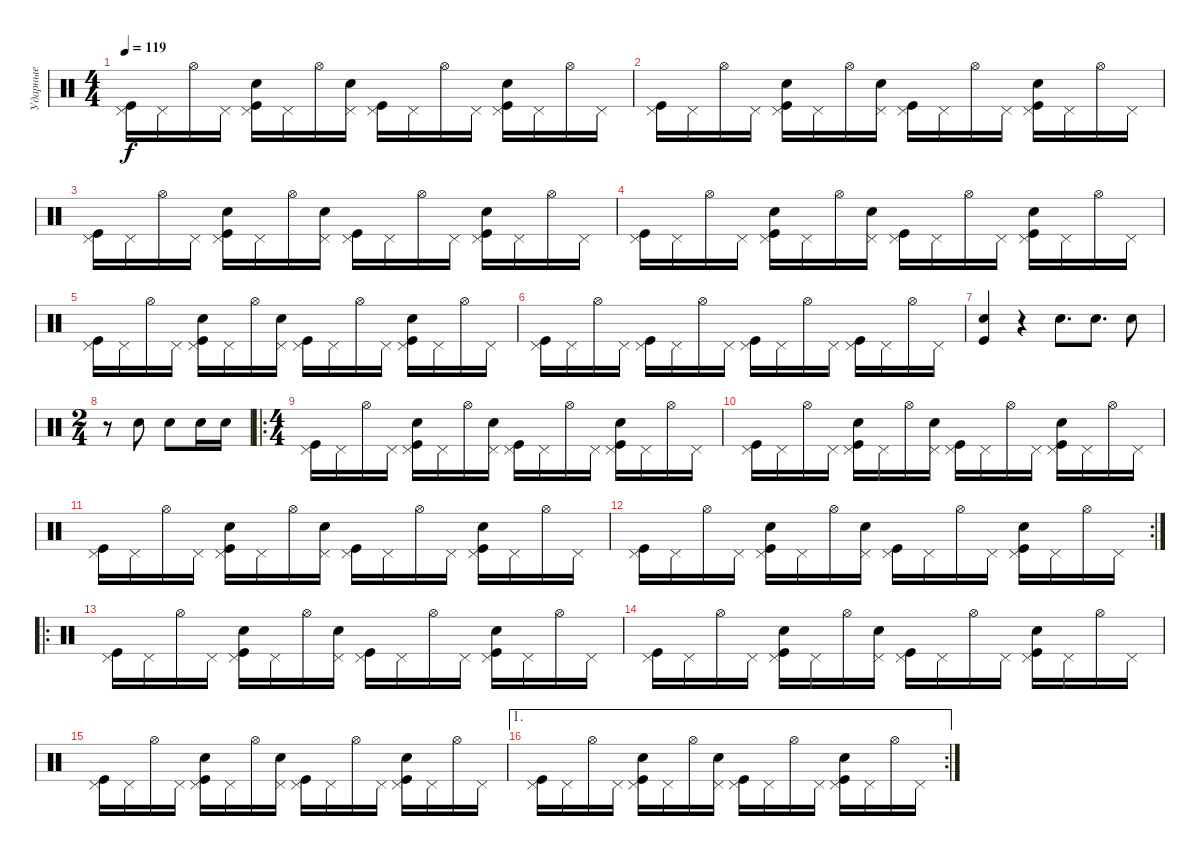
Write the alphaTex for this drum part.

\track ("Ударные" "Ударные") {instrument percussion}
\staff {score}
\articulation defaults
\ts (4 4)
\tempo 119
\clef neutral
\ks c
("Kick (hit)" "Pedal Hi-Hat (hit)").16{dy f} "Pedal Hi-Hat (hit)".16 "Hi-Hat (open)".16 "Pedal Hi-Hat (hit)".16 ("Kick (hit)" "Electric Snare (hit)" "Pedal Hi-Hat (hit)").16 "Pedal Hi-Hat (hit)".16 "Hi-Hat (open)".16 ("Electric Snare (hit)" "Pedal Hi-Hat (hit)").16 ("Kick (hit)" "Pedal Hi-Hat (hit)").16 "Pedal Hi-Hat (hit)".16 "Hi-Hat (open)".16 "Pedal Hi-Hat (hit)".16 ("Kick (hit)" "Electric Snare (hit)" "Pedal Hi-Hat (hit)").16 "Pedal Hi-Hat (hit)".16 "Hi-Hat (open)".16 "Pedal Hi-Hat (hit)".16 |
("Kick (hit)" "Pedal Hi-Hat (hit)").16 "Pedal Hi-Hat (hit)".16 "Hi-Hat (open)".16 "Pedal Hi-Hat (hit)".16 ("Kick (hit)" "Electric Snare (hit)" "Pedal Hi-Hat (hit)").16 "Pedal Hi-Hat (hit)".16 "Hi-Hat (open)".16 ("Electric Snare (hit)" "Pedal Hi-Hat (hit)").16 ("Kick (hit)" "Pedal Hi-Hat (hit)").16 "Pedal Hi-Hat (hit)".16 "Hi-Hat (open)".16 "Pedal Hi-Hat (hit)".16 ("Kick (hit)" "Electric Snare (hit)" "Pedal Hi-Hat (hit)").16 "Pedal Hi-Hat (hit)".16 "Hi-Hat (open)".16 "Pedal Hi-Hat (hit)".16 |
("Kick (hit)" "Pedal Hi-Hat (hit)").16 "Pedal Hi-Hat (hit)".16 "Hi-Hat (open)".16 "Pedal Hi-Hat (hit)".16 ("Kick (hit)" "Electric Snare (hit)" "Pedal Hi-Hat (hit)").16 "Pedal Hi-Hat (hit)".16 "Hi-Hat (open)".16 ("Electric Snare (hit)" "Pedal Hi-Hat (hit)").16 ("Kick (hit)" "Pedal Hi-Hat (hit)").16 "Pedal Hi-Hat (hit)".16 "Hi-Hat (open)".16 "Pedal Hi-Hat (hit)".16 ("Kick (hit)" "Electric Snare (hit)" "Pedal Hi-Hat (hit)").16 "Pedal Hi-Hat (hit)".16 "Hi-Hat (open)".16 "Pedal Hi-Hat (hit)".16 |
("Kick (hit)" "Pedal Hi-Hat (hit)").16 "Pedal Hi-Hat (hit)".16 "Hi-Hat (open)".16 "Pedal Hi-Hat (hit)".16 ("Kick (hit)" "Electric Snare (hit)" "Pedal Hi-Hat (hit)").16 "Pedal Hi-Hat (hit)".16 "Hi-Hat (open)".16 ("Electric Snare (hit)" "Pedal Hi-Hat (hit)").16 ("Kick (hit)" "Pedal Hi-Hat (hit)").16 "Pedal Hi-Hat (hit)".16 "Hi-Hat (open)".16 "Pedal Hi-Hat (hit)".16 ("Kick (hit)" "Electric Snare (hit)" "Pedal Hi-Hat (hit)").16 "Pedal Hi-Hat (hit)".16 "Hi-Hat (open)".16 "Pedal Hi-Hat (hit)".16 |
("Kick (hit)" "Pedal Hi-Hat (hit)").16 "Pedal Hi-Hat (hit)".16 "Hi-Hat (open)".16 "Pedal Hi-Hat (hit)".16 ("Kick (hit)" "Electric Snare (hit)" "Pedal Hi-Hat (hit)").16 "Pedal Hi-Hat (hit)".16 "Hi-Hat (open)".16 ("Electric Snare (hit)" "Pedal Hi-Hat (hit)").16 ("Kick (hit)" "Pedal Hi-Hat (hit)").16 "Pedal Hi-Hat (hit)".16 "Hi-Hat (open)".16 "Pedal Hi-Hat (hit)".16 ("Kick (hit)" "Electric Snare (hit)" "Pedal Hi-Hat (hit)").16 "Pedal Hi-Hat (hit)".16 "Hi-Hat (open)".16 "Pedal Hi-Hat (hit)".16 |
("Kick (hit)" "Pedal Hi-Hat (hit)").16 "Pedal Hi-Hat (hit)".16 "Hi-Hat (open)".16 "Pedal Hi-Hat (hit)".16 ("Kick (hit)" "Pedal Hi-Hat (hit)").16 "Pedal Hi-Hat (hit)".16 "Hi-Hat (open)".16 "Pedal Hi-Hat (hit)".16 ("Kick (hit)" "Pedal Hi-Hat (hit)").16 "Pedal Hi-Hat (hit)".16 "Hi-Hat (open)".16 "Pedal Hi-Hat (hit)".16 ("Kick (hit)" "Pedal Hi-Hat (hit)").16 "Pedal Hi-Hat (hit)".16 "Hi-Hat (open)".16 "Pedal Hi-Hat (hit)".16 |
("Kick (hit)" "Electric Snare (hit)").4 r.4 "Snare (hit) 2".8{d} "Snare (hit) 2".8{d} "Snare (hit) 2".8 |
\ts (2 4)
r.8 "Electric Snare (hit)".8 "Electric Snare (hit)".8 "Electric Snare (hit)".16 "Electric Snare (hit)".16 |
\ro
\ts (4 4)
("Kick (hit)" "Pedal Hi-Hat (hit)").16 "Pedal Hi-Hat (hit)".16 "Hi-Hat (open)".16 "Pedal Hi-Hat (hit)".16 ("Kick (hit)" "Electric Snare (hit)" "Pedal Hi-Hat (hit)").16 "Pedal Hi-Hat (hit)".16 "Hi-Hat (open)".16 ("Electric Snare (hit)" "Pedal Hi-Hat (hit)").16 ("Kick (hit)" "Pedal Hi-Hat (hit)").16 "Pedal Hi-Hat (hit)".16 "Hi-Hat (open)".16 "Pedal Hi-Hat (hit)".16 ("Kick (hit)" "Electric Snare (hit)" "Pedal Hi-Hat (hit)").16 "Pedal Hi-Hat (hit)".16 "Hi-Hat (open)".16 "Pedal Hi-Hat (hit)".16 |
("Kick (hit)" "Pedal Hi-Hat (hit)").16 "Pedal Hi-Hat (hit)".16 "Hi-Hat (open)".16 "Pedal Hi-Hat (hit)".16 ("Kick (hit)" "Electric Snare (hit)" "Pedal Hi-Hat (hit)").16 "Pedal Hi-Hat (hit)".16 "Hi-Hat (open)".16 ("Electric Snare (hit)" "Pedal Hi-Hat (hit)").16 ("Kick (hit)" "Pedal Hi-Hat (hit)").16 "Pedal Hi-Hat (hit)".16 "Hi-Hat (open)".16 "Pedal Hi-Hat (hit)".16 ("Kick (hit)" "Electric Snare (hit)" "Pedal Hi-Hat (hit)").16 "Pedal Hi-Hat (hit)".16 "Hi-Hat (open)".16 "Pedal Hi-Hat (hit)".16 |
("Kick (hit)" "Pedal Hi-Hat (hit)").16 "Pedal Hi-Hat (hit)".16 "Hi-Hat (open)".16 "Pedal Hi-Hat (hit)".16 ("Kick (hit)" "Electric Snare (hit)" "Pedal Hi-Hat (hit)").16 "Pedal Hi-Hat (hit)".16 "Hi-Hat (open)".16 ("Electric Snare (hit)" "Pedal Hi-Hat (hit)").16 ("Kick (hit)" "Pedal Hi-Hat (hit)").16 "Pedal Hi-Hat (hit)".16 "Hi-Hat (open)".16 "Pedal Hi-Hat (hit)".16 ("Kick (hit)" "Electric Snare (hit)" "Pedal Hi-Hat (hit)").16 "Pedal Hi-Hat (hit)".16 "Hi-Hat (open)".16 "Pedal Hi-Hat (hit)".16 |
\rc 2
("Kick (hit)" "Pedal Hi-Hat (hit)").16 "Pedal Hi-Hat (hit)".16 "Hi-Hat (open)".16 "Pedal Hi-Hat (hit)".16 ("Kick (hit)" "Electric Snare (hit)" "Pedal Hi-Hat (hit)").16 "Pedal Hi-Hat (hit)".16 "Hi-Hat (open)".16 ("Electric Snare (hit)" "Pedal Hi-Hat (hit)").16 ("Kick (hit)" "Pedal Hi-Hat (hit)").16 "Pedal Hi-Hat (hit)".16 "Hi-Hat (open)".16 "Pedal Hi-Hat (hit)".16 ("Kick (hit)" "Electric Snare (hit)" "Pedal Hi-Hat (hit)").16 "Pedal Hi-Hat (hit)".16 "Hi-Hat (open)".16 "Pedal Hi-Hat (hit)".16 |
\ro
("Kick (hit)" "Pedal Hi-Hat (hit)").16 "Pedal Hi-Hat (hit)".16 "Hi-Hat (open)".16 "Pedal Hi-Hat (hit)".16 ("Kick (hit)" "Electric Snare (hit)" "Pedal Hi-Hat (hit)").16 "Pedal Hi-Hat (hit)".16 "Hi-Hat (open)".16 ("Electric Snare (hit)" "Pedal Hi-Hat (hit)").16 ("Kick (hit)" "Pedal Hi-Hat (hit)").16 "Pedal Hi-Hat (hit)".16 "Hi-Hat (open)".16 "Pedal Hi-Hat (hit)".16 ("Kick (hit)" "Electric Snare (hit)" "Pedal Hi-Hat (hit)").16 "Pedal Hi-Hat (hit)".16 "Hi-Hat (open)".16 "Pedal Hi-Hat (hit)".16 |
("Kick (hit)" "Pedal Hi-Hat (hit)").16 "Pedal Hi-Hat (hit)".16 "Hi-Hat (open)".16 "Pedal Hi-Hat (hit)".16 ("Kick (hit)" "Electric Snare (hit)" "Pedal Hi-Hat (hit)").16 "Pedal Hi-Hat (hit)".16 "Hi-Hat (open)".16 ("Electric Snare (hit)" "Pedal Hi-Hat (hit)").16 ("Kick (hit)" "Pedal Hi-Hat (hit)").16 "Pedal Hi-Hat (hit)".16 "Hi-Hat (open)".16 "Pedal Hi-Hat (hit)".16 ("Kick (hit)" "Electric Snare (hit)" "Pedal Hi-Hat (hit)").16 "Pedal Hi-Hat (hit)".16 "Hi-Hat (open)".16 "Pedal Hi-Hat (hit)".16 |
("Kick (hit)" "Pedal Hi-Hat (hit)").16 "Pedal Hi-Hat (hit)".16 "Hi-Hat (open)".16 "Pedal Hi-Hat (hit)".16 ("Kick (hit)" "Electric Snare (hit)" "Pedal Hi-Hat (hit)").16 "Pedal Hi-Hat (hit)".16 "Hi-Hat (open)".16 ("Electric Snare (hit)" "Pedal Hi-Hat (hit)").16 ("Kick (hit)" "Pedal Hi-Hat (hit)").16 "Pedal Hi-Hat (hit)".16 "Hi-Hat (open)".16 "Pedal Hi-Hat (hit)".16 ("Kick (hit)" "Electric Snare (hit)" "Pedal Hi-Hat (hit)").16 "Pedal Hi-Hat (hit)".16 "Hi-Hat (open)".16 "Pedal Hi-Hat (hit)".16 |
\ae 1
\rc 2
("Kick (hit)" "Pedal Hi-Hat (hit)").16 "Pedal Hi-Hat (hit)".16 "Hi-Hat (open)".16 "Pedal Hi-Hat (hit)".16 ("Kick (hit)" "Electric Snare (hit)" "Pedal Hi-Hat (hit)").16 "Pedal Hi-Hat (hit)".16 "Hi-Hat (open)".16 ("Electric Snare (hit)" "Pedal Hi-Hat (hit)").16 ("Kick (hit)" "Pedal Hi-Hat (hit)").16 "Pedal Hi-Hat (hit)".16 "Hi-Hat (open)".16 "Pedal Hi-Hat (hit)".16 ("Kick (hit)" "Electric Snare (hit)" "Pedal Hi-Hat (hit)").16 "Pedal Hi-Hat (hit)".16 "Hi-Hat (open)".16 "Pedal Hi-Hat (hit)".16
